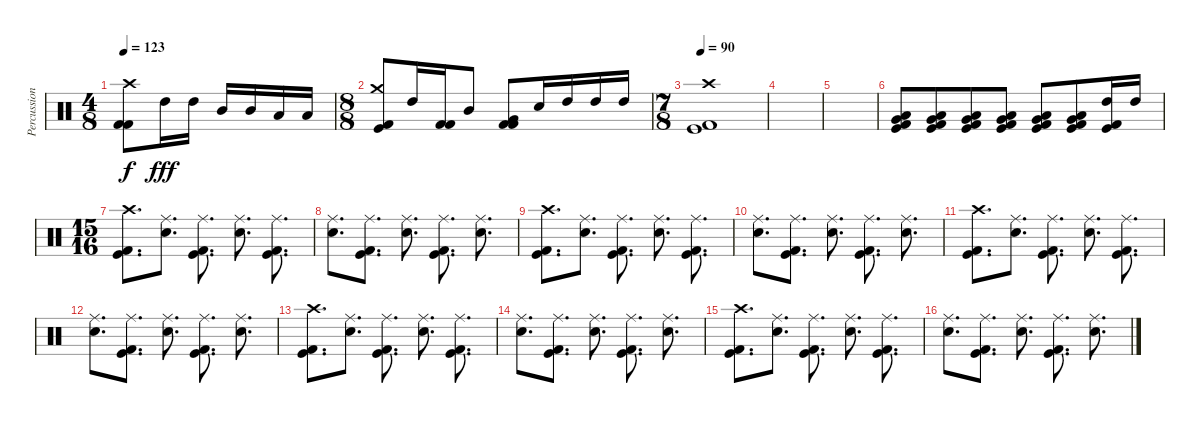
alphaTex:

\track ("Percussion" "Percussion") {instrument percussion}
\staff {score}
\articulation defaults
\ts (4 8)
\tempo 123
\clef neutral
\ks c
("Crash high (hit)" "Kick (hit) 2" "Kick (hit) 2").8{dy f} "High Tom (hit)".16{dy fff} "High Tom (hit)".16 "Mid Tom (hit)".16 "Mid Tom (hit)".16 "Low Tom (hit)".16 "Low Tom (hit)".16 |
\ts (8 8)
("Crash medium (hit)" "Kick (hit) 2" "Kick (hit)").8 "High Tom (hit)".16 ("Kick (hit) 2" "Kick (hit) 2").16 "Mid Tom (hit)".8 ("Very Low Tom (hit)" "Kick (hit) 2" "Kick (hit) 2").8 "Electric Snare (hit)".16 "High Tom (hit)".16 "High Tom (hit)".16 "High Tom (hit)".16 |
\ts (7 8)
\tempo 90
("Kick (hit) 2" "Kick (hit)" "Crash high (hit)").1 |
|
|
("Low Floor Tom (hit)" "Very Low Tom (hit)" "Kick (hit) 2" "Kick (hit)").8 ("Low Floor Tom (hit)" "Very Low Tom (hit)" "Kick (hit) 2" "Kick (hit)").8 ("Low Floor Tom (hit)" "Very Low Tom (hit)" "Kick (hit) 2" "Kick (hit)").8 ("Low Floor Tom (hit)" "Very Low Tom (hit)" "Kick (hit) 2" "Kick (hit)").8 ("Low Floor Tom (hit)" "Very Low Tom (hit)" "Kick (hit) 2" "Kick (hit)").8 ("Low Floor Tom (hit)" "Very Low Tom (hit)" "Kick (hit) 2" "Kick (hit)").8 ("High Tom (hit)" "Kick (hit) 2" "Kick (hit)").16 "High Tom (hit)".16 |
\ts (15 16)
("Crash high (hit)" "Kick (hit)" "Kick (hit) 2").8{d} ("Ride (middle)" "Electric Snare (hit)").8{d} ("Ride (middle)" "Kick (hit) 2" "Kick (hit)").8{d} ("Ride (middle)" "Electric Snare (hit)").8{d} ("Ride (middle)" "Kick (hit) 2" "Kick (hit)").8{d} |
("Ride (middle)" "Electric Snare (hit)").8{d} ("Ride (middle)" "Kick (hit) 2" "Kick (hit)").8{d} ("Ride (middle)" "Electric Snare (hit)").8{d} ("Ride (middle)" "Kick (hit) 2" "Kick (hit)").8{d} ("Ride (middle)" "Electric Snare (hit)").8{d} |
("Crash high (hit)" "Kick (hit)" "Kick (hit) 2").8{d} ("Ride (middle)" "Electric Snare (hit)").8{d} ("Ride (middle)" "Kick (hit) 2" "Kick (hit)").8{d} ("Ride (middle)" "Electric Snare (hit)").8{d} ("Ride (middle)" "Kick (hit) 2" "Kick (hit)").8{d} |
("Ride (middle)" "Electric Snare (hit)").8{d} ("Ride (middle)" "Kick (hit) 2" "Kick (hit)").8{d} ("Ride (middle)" "Electric Snare (hit)").8{d} ("Ride (middle)" "Kick (hit) 2" "Kick (hit)").8{d} ("Ride (middle)" "Electric Snare (hit)").8{d} |
("Crash high (hit)" "Kick (hit)" "Kick (hit) 2").8{d} ("Ride (middle)" "Electric Snare (hit)").8{d} ("Ride (middle)" "Kick (hit) 2" "Kick (hit)").8{d} ("Ride (middle)" "Electric Snare (hit)").8{d} ("Ride (middle)" "Kick (hit) 2" "Kick (hit)").8{d} |
("Ride (middle)" "Electric Snare (hit)").8{d} ("Ride (middle)" "Kick (hit) 2" "Kick (hit)").8{d} ("Ride (middle)" "Electric Snare (hit)").8{d} ("Ride (middle)" "Kick (hit) 2" "Kick (hit)").8{d} ("Ride (middle)" "Electric Snare (hit)").8{d} |
("Crash high (hit)" "Kick (hit)" "Kick (hit) 2").8{d} ("Ride (middle)" "Electric Snare (hit)").8{d} ("Ride (middle)" "Kick (hit) 2" "Kick (hit)").8{d} ("Ride (middle)" "Electric Snare (hit)").8{d} ("Ride (middle)" "Kick (hit) 2" "Kick (hit)").8{d} |
("Ride (middle)" "Electric Snare (hit)").8{d} ("Ride (middle)" "Kick (hit) 2" "Kick (hit)").8{d} ("Ride (middle)" "Electric Snare (hit)").8{d} ("Ride (middle)" "Kick (hit) 2" "Kick (hit)").8{d} ("Ride (middle)" "Electric Snare (hit)").8{d} |
("Crash high (hit)" "Kick (hit)" "Kick (hit) 2").8{d} ("Ride (middle)" "Electric Snare (hit)").8{d} ("Ride (middle)" "Kick (hit) 2" "Kick (hit)").8{d} ("Ride (middle)" "Electric Snare (hit)").8{d} ("Ride (middle)" "Kick (hit) 2" "Kick (hit)").8{d} |
("Ride (middle)" "Electric Snare (hit)").8{d} ("Ride (middle)" "Kick (hit) 2" "Kick (hit)").8{d} ("Ride (middle)" "Electric Snare (hit)").8{d} ("Ride (middle)" "Kick (hit) 2" "Kick (hit)").8{d} ("Ride (middle)" "Electric Snare (hit)").8{d}
